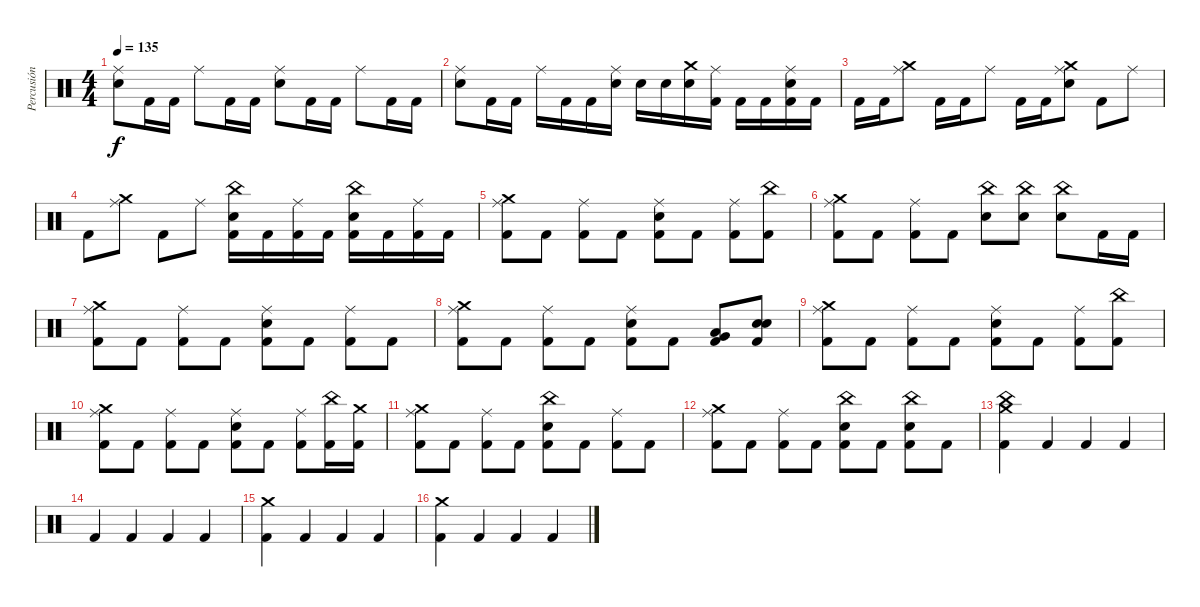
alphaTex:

\track ("Percusión" "Percusión") {instrument percussion}
\staff {score}
\articulation defaults
\ts (4 4)
\tempo 135
\clef neutral
\ks c
("Ride (middle)" "Snare (hit) 2").8{dy f} "Kick (hit) 2".16 "Kick (hit) 2".16 "Ride (middle)".8 "Kick (hit) 2".16 "Kick (hit) 2".16 ("Ride (middle)" "Snare (hit) 2").8 "Kick (hit) 2".16 "Kick (hit) 2".16 "Ride (middle)".8 "Kick (hit) 2".16 "Kick (hit) 2".16 |
("Ride (middle)" "Snare (hit) 2").8 "Kick (hit) 2".16 "Kick (hit) 2".16 "Ride (middle)".16 "Kick (hit) 2".16 "Kick (hit) 2".16 ("Ride (middle)" "Snare (hit) 2").16 "Snare (hit) 2".16 "Snare (hit) 2".16 ("Snare (hit) 2" "Crash medium (hit)").16 ("Ride (middle)" "Kick (hit) 2").16 "Kick (hit) 2".16 "Kick (hit) 2".16 ("Ride (middle)" "Snare (hit) 2" "Kick (hit) 2").16 "Kick (hit) 2".16 |
"Kick (hit) 2".16 "Kick (hit) 2".16 ("Ride (middle)" "Crash medium (hit)").8 "Kick (hit) 2".16 "Kick (hit) 2".16 "Ride (middle)".8 "Kick (hit) 2".16 "Kick (hit) 2".16 ("Ride (middle)" "Snare (hit) 2" "Crash medium (hit)").8 "Kick (hit) 2".8 "Ride (middle)".8 |
"Kick (hit) 2".8 ("Ride (middle)" "Crash medium (hit)").8 "Kick (hit) 2".8 "Ride (middle)".8 ("Snare (hit) 2" "China (hit)" "Kick (hit) 2").16 "Kick (hit) 2".16 ("Ride (middle)" "Kick (hit) 2").16 "Kick (hit) 2".16 ("Snare (hit) 2" "China (hit)" "Kick (hit) 2").16 "Kick (hit) 2".16 ("Ride (middle)" "Kick (hit) 2").16 "Kick (hit) 2".16 |
("Ride (middle)" "Crash medium (hit)" "Kick (hit) 2").8 "Kick (hit) 2".8 ("Ride (middle)" "Kick (hit) 2").8 "Kick (hit) 2".8 ("Ride (middle)" "Snare (hit) 2" "Kick (hit) 2").8 "Kick (hit) 2".8 ("Ride (middle)" "Kick (hit) 2").8 ("China (hit)" "Kick (hit) 2").8 |
("Ride (middle)" "Crash medium (hit)" "Kick (hit) 2").8 "Kick (hit) 2".8 ("Ride (middle)" "Kick (hit) 2").8 "Kick (hit) 2".8 ("Snare (hit) 2" "China (hit)").8 ("Snare (hit) 2" "China (hit)").8 ("Snare (hit) 2" "China (hit)").8 "Kick (hit) 2".16 "Kick (hit) 2".16 |
("Ride (middle)" "Crash medium (hit)" "Kick (hit) 2").8 "Kick (hit) 2".8 ("Ride (middle)" "Kick (hit) 2").8 "Kick (hit) 2".8 ("Ride (middle)" "Snare (hit) 2" "Kick (hit) 2").8 "Kick (hit) 2".8 ("Ride (middle)" "Kick (hit) 2").8 "Kick (hit) 2".8 |
("Ride (middle)" "Crash medium (hit)" "Kick (hit) 2").8 "Kick (hit) 2".8 ("Ride (middle)" "Kick (hit) 2").8 "Kick (hit) 2".8 ("Ride (middle)" "Snare (hit) 2" "Kick (hit) 2").8 "Kick (hit) 2".8 ("Very Low Tom (hit)" "Low Tom (hit)" "Kick (hit) 2").8 ("Snare (hit) 2" "Snare (hit) 2" "Kick (hit) 2").8 |
("Ride (middle)" "Crash medium (hit)" "Kick (hit) 2").8 "Kick (hit) 2".8 ("Ride (middle)" "Kick (hit) 2").8 "Kick (hit) 2".8 ("Ride (middle)" "Snare (hit) 2" "Kick (hit) 2").8 "Kick (hit) 2".8 ("Ride (middle)" "Kick (hit) 2").8 ("China (hit)" "Kick (hit) 2").8 |
("Ride (middle)" "Crash medium (hit)" "Kick (hit) 2").8 "Kick (hit) 2".8 ("Ride (middle)" "Kick (hit) 2").8 "Kick (hit) 2".8 ("Ride (middle)" "Snare (hit) 2" "Kick (hit) 2").8 "Kick (hit) 2".8 ("Ride (middle)" "Kick (hit) 2").8 ("China (hit)" "Kick (hit) 2").16 ("Crash medium (hit)" "Kick (hit) 2").16 |
("Ride (middle)" "Crash medium (hit)" "Kick (hit) 2").8 "Kick (hit) 2".8 ("Ride (middle)" "Kick (hit) 2").8 "Kick (hit) 2".8 ("Snare (hit) 2" "China (hit)" "Kick (hit) 2").8 "Kick (hit) 2".8 ("Ride (middle)" "Kick (hit) 2").8 "Kick (hit) 2".8 |
("Ride (middle)" "Crash medium (hit)" "Kick (hit) 2").8 "Kick (hit) 2".8 ("Ride (middle)" "Kick (hit) 2").8 "Kick (hit) 2".8 ("Snare (hit) 2" "China (hit)" "Kick (hit) 2").8 "Kick (hit) 2".8 ("Snare (hit) 2" "China (hit)" "Kick (hit) 2").8 "Kick (hit) 2".8 |
("Crash medium (hit)" "China (hit)" "Kick (hit) 2").4 "Kick (hit) 2".4 "Kick (hit) 2".4 "Kick (hit) 2".4 |
"Kick (hit) 2".4 "Kick (hit) 2".4 "Kick (hit) 2".4 "Kick (hit) 2".4 |
("Crash medium (hit)" "Kick (hit) 2").4 "Kick (hit) 2".4 "Kick (hit) 2".4 "Kick (hit) 2".4 |
("Crash medium (hit)" "Kick (hit) 2").4 "Kick (hit) 2".4 "Kick (hit) 2".4 "Kick (hit) 2".4
